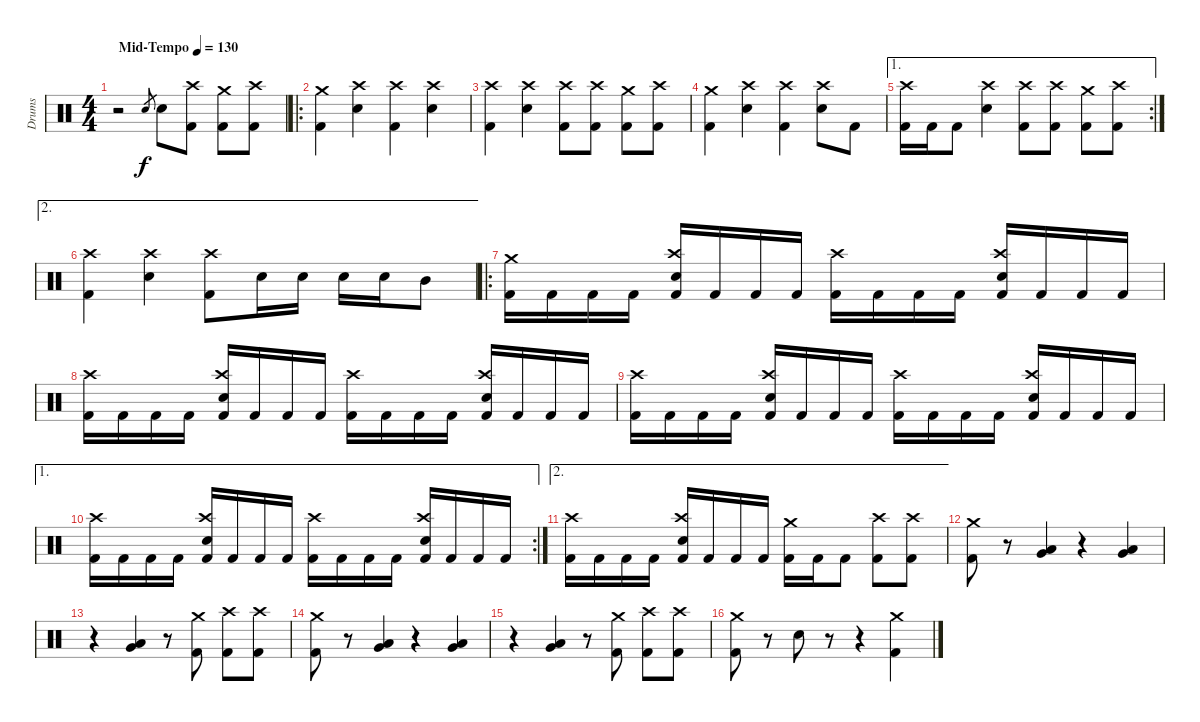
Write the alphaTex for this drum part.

\track ("Drums" "Drums") {instrument percussion}
\staff {score}
\articulation defaults
\ts (4 4)
\tempo (130 "Mid-Tempo")
\clef neutral
\ks c
r.2{dy f} "Electric Snare (hit)".8{gr} "Electric Snare (hit)".8 ("Crash high (hit)" "Kick (hit) 2").8 ("Crash medium (hit)" "Kick (hit) 2").8 ("Crash high (hit)" "Kick (hit) 2").8 |
\ro
("Crash medium (hit)" "Kick (hit) 2").4 ("Crash high (hit)" "Electric Snare (hit)").4 ("Crash high (hit)" "Kick (hit) 2").4 ("Crash high (hit)" "Electric Snare (hit)").4 |
("Crash high (hit)" "Kick (hit) 2").4 ("Crash high (hit)" "Electric Snare (hit)").4 ("Crash high (hit)" "Kick (hit) 2").8 ("Crash high (hit)" "Kick (hit) 2").8 ("Crash medium (hit)" "Kick (hit) 2").8 ("Crash high (hit)" "Kick (hit) 2").8 |
("Crash medium (hit)" "Kick (hit) 2").4 ("Crash high (hit)" "Electric Snare (hit)").4 ("Crash high (hit)" "Kick (hit) 2").4 ("Crash high (hit)" "Electric Snare (hit)").8 "Kick (hit) 2".8 |
\ae 1
\rc 2
("Crash high (hit)" "Kick (hit) 2").16 "Kick (hit) 2".16 "Kick (hit) 2".8 ("Crash high (hit)" "Electric Snare (hit)").4 ("Crash high (hit)" "Kick (hit) 2").8 ("Crash high (hit)" "Kick (hit) 2").8 ("Crash medium (hit)" "Kick (hit) 2").8 ("Crash high (hit)" "Kick (hit) 2").8 |
\ae 2
("Crash high (hit)" "Kick (hit) 2").4 ("Crash high (hit)" "Electric Snare (hit)").4 ("Crash high (hit)" "Kick (hit) 2").8 "Electric Snare (hit)".16 "Electric Snare (hit)".16 "Electric Snare (hit)".16 "Electric Snare (hit)".16 "Mid Tom (hit)".8 |
\ro
("Crash medium (hit)" "Kick (hit) 2").16 "Kick (hit) 2".16 "Kick (hit) 2".16 "Kick (hit) 2".16 ("Crash high (hit)" "Electric Snare (hit)" "Kick (hit) 2").16 "Kick (hit) 2".16 "Kick (hit) 2".16 "Kick (hit) 2".16 ("Crash high (hit)" "Kick (hit) 2").16 "Kick (hit) 2".16 "Kick (hit) 2".16 "Kick (hit) 2".16 ("Crash high (hit)" "Electric Snare (hit)" "Kick (hit) 2").16 "Kick (hit) 2".16 "Kick (hit) 2".16 "Kick (hit) 2".16 |
("Crash high (hit)" "Kick (hit) 2").16 "Kick (hit) 2".16 "Kick (hit) 2".16 "Kick (hit) 2".16 ("Crash high (hit)" "Electric Snare (hit)" "Kick (hit) 2").16 "Kick (hit) 2".16 "Kick (hit) 2".16 "Kick (hit) 2".16 ("Crash high (hit)" "Kick (hit) 2").16 "Kick (hit) 2".16 "Kick (hit) 2".16 "Kick (hit) 2".16 ("Crash high (hit)" "Electric Snare (hit)" "Kick (hit) 2").16 "Kick (hit) 2".16 "Kick (hit) 2".16 "Kick (hit) 2".16 |
("Crash high (hit)" "Kick (hit) 2").16 "Kick (hit) 2".16 "Kick (hit) 2".16 "Kick (hit) 2".16 ("Crash high (hit)" "Electric Snare (hit)" "Kick (hit) 2").16 "Kick (hit) 2".16 "Kick (hit) 2".16 "Kick (hit) 2".16 ("Crash high (hit)" "Kick (hit) 2").16 "Kick (hit) 2".16 "Kick (hit) 2".16 "Kick (hit) 2".16 ("Crash high (hit)" "Electric Snare (hit)" "Kick (hit) 2").16 "Kick (hit) 2".16 "Kick (hit) 2".16 "Kick (hit) 2".16 |
\ae 1
\rc 2
("Crash high (hit)" "Kick (hit) 2").16 "Kick (hit) 2".16 "Kick (hit) 2".16 "Kick (hit) 2".16 ("Crash high (hit)" "Electric Snare (hit)" "Kick (hit) 2").16 "Kick (hit) 2".16 "Kick (hit) 2".16 "Kick (hit) 2".16 ("Crash high (hit)" "Kick (hit) 2").16 "Kick (hit) 2".16 "Kick (hit) 2".16 "Kick (hit) 2".16 ("Crash high (hit)" "Electric Snare (hit)" "Kick (hit) 2").16 "Kick (hit) 2".16 "Kick (hit) 2".16 "Kick (hit) 2".16 |
\ae 2
("Crash high (hit)" "Kick (hit) 2").16 "Kick (hit) 2".16 "Kick (hit) 2".16 "Kick (hit) 2".16 ("Crash high (hit)" "Electric Snare (hit)" "Kick (hit) 2").16 "Kick (hit) 2".16 "Kick (hit) 2".16 "Kick (hit) 2".16 ("Crash medium (hit)" "Kick (hit) 2").16 "Kick (hit) 2".16 "Kick (hit) 2".8 ("Crash high (hit)" "Kick (hit) 2").8 ("Crash high (hit)" "Kick (hit) 2").8 |
("Crash medium (hit)" "Kick (hit) 2").8 r.8 ("Low Tom (hit)" "Very Low Tom (hit)").4 r.4 ("Low Tom (hit)" "Very Low Tom (hit)").4 |
r.4 ("Low Tom (hit)" "Very Low Tom (hit)").4 r.8 ("Crash medium (hit)" "Kick (hit) 2").8 ("Crash high (hit)" "Kick (hit) 2").8 ("Crash high (hit)" "Kick (hit) 2").8 |
("Crash medium (hit)" "Kick (hit) 2").8 r.8 ("Low Tom (hit)" "Very Low Tom (hit)").4 r.4 ("Low Tom (hit)" "Very Low Tom (hit)").4 |
r.4 ("Low Tom (hit)" "Very Low Tom (hit)").4 r.8 ("Crash medium (hit)" "Kick (hit) 2").8 ("Crash high (hit)" "Kick (hit) 2").8 ("Crash high (hit)" "Kick (hit) 2").8 |
("Crash medium (hit)" "Kick (hit) 2").8 r.8 "Electric Snare (hit)".8 r.8 r.4 ("Crash medium (hit)" "Kick (hit) 2").4
